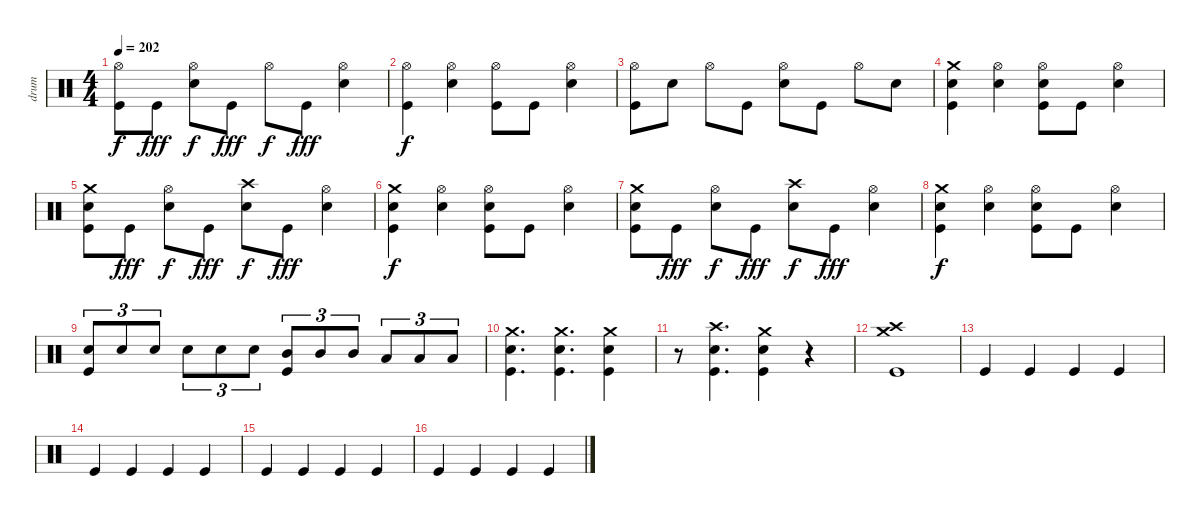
\track ("drum" "drum") {instrument percussion}
\staff {score}
\articulation defaults
\ts (4 4)
\tempo 202
\clef neutral
\ks c
("Hi-Hat (open)" "Kick (hit)").8{dy f} "Kick (hit)".8{dy fff} ("Hi-Hat (open)" "Electric Snare (hit)").8{dy f} "Kick (hit)".8{dy fff} "Hi-Hat (open)".8{dy f} "Kick (hit)".8{dy fff} ("Hi-Hat (open)" "Electric Snare (hit)").4 |
("Hi-Hat (open)" "Kick (hit)").4{dy f} ("Hi-Hat (open)" "Electric Snare (hit)").4 ("Hi-Hat (open)" "Kick (hit)").8 "Kick (hit)".8 ("Hi-Hat (open)" "Electric Snare (hit)").4 |
("Hi-Hat (open)" "Kick (hit)").8 "Electric Snare (hit)".8 "Hi-Hat (open)".8 "Kick (hit)".8 ("Hi-Hat (open)" "Electric Snare (hit)").8 "Kick (hit)".8 "Hi-Hat (open)".8 "Electric Snare (hit)".8 |
("Crash medium (hit)" "Electric Snare (hit)" "Kick (hit)").4 ("Hi-Hat (open)" "Electric Snare (hit)").4 ("Hi-Hat (open)" "Electric Snare (hit)" "Kick (hit)").8 "Kick (hit)".8 ("Hi-Hat (open)" "Electric Snare (hit)").4 |
("Crash medium (hit)" "Electric Snare (hit)" "Kick (hit)").8 "Kick (hit)".8{dy fff} ("Hi-Hat (open)" "Electric Snare (hit)").8{dy f} "Kick (hit)".8{dy fff} ("Crash high (hit)" "Electric Snare (hit)").8{dy f} "Kick (hit)".8{dy fff} ("Hi-Hat (open)" "Electric Snare (hit)").4 |
("Crash medium (hit)" "Electric Snare (hit)" "Kick (hit)").4{dy f} ("Hi-Hat (open)" "Electric Snare (hit)").4 ("Hi-Hat (open)" "Electric Snare (hit)" "Kick (hit)").8 "Kick (hit)".8 ("Hi-Hat (open)" "Electric Snare (hit)").4 |
("Crash medium (hit)" "Electric Snare (hit)" "Kick (hit)").8 "Kick (hit)".8{dy fff} ("Hi-Hat (open)" "Electric Snare (hit)").8{dy f} "Kick (hit)".8{dy fff} ("Crash high (hit)" "Electric Snare (hit)").8{dy f} "Kick (hit)".8{dy fff} ("Hi-Hat (open)" "Electric Snare (hit)").4 |
("Crash medium (hit)" "Electric Snare (hit)" "Kick (hit)").4{dy f} ("Hi-Hat (open)" "Electric Snare (hit)").4 ("Hi-Hat (open)" "Electric Snare (hit)" "Kick (hit)").8 "Kick (hit)".8 ("Hi-Hat (open)" "Electric Snare (hit)").4 |
("Electric Snare (hit)" "Kick (hit)").8{tu (3 2)} "Electric Snare (hit)".8{tu (3 2)} "Electric Snare (hit)".8{tu (3 2)} "Electric Snare (hit)".8{tu (3 2)} "Electric Snare (hit)".8{tu (3 2)} "Electric Snare (hit)".8{tu (3 2)} ("Mid Tom (hit)" "Kick (hit)").8{tu (3 2)} "Mid Tom (hit)".8{tu (3 2)} "Mid Tom (hit)".8{tu (3 2)} "Low Tom (hit)".8{tu (3 2)} "Low Tom (hit)".8{tu (3 2)} "Low Tom (hit)".8{tu (3 2)} |
("Crash medium (hit)" "Electric Snare (hit)" "Kick (hit)").4{d} ("Crash medium (hit)" "Electric Snare (hit)" "Kick (hit)").4{d} ("Crash medium (hit)" "Electric Snare (hit)" "Kick (hit)").4 |
r.8 ("Crash high (hit)" "Electric Snare (hit)" "Kick (hit)").4{d} ("Crash medium (hit)" "Electric Snare (hit)" "Kick (hit)").4 r.4 |
("Crash high (hit)" "Crash medium (hit)" "Kick (hit)").1 |
"Kick (hit)".4 "Kick (hit)".4 "Kick (hit)".4 "Kick (hit)".4 |
"Kick (hit)".4 "Kick (hit)".4 "Kick (hit)".4 "Kick (hit)".4 |
"Kick (hit)".4 "Kick (hit)".4 "Kick (hit)".4 "Kick (hit)".4 |
"Kick (hit)".4 "Kick (hit)".4 "Kick (hit)".4 "Kick (hit)".4
